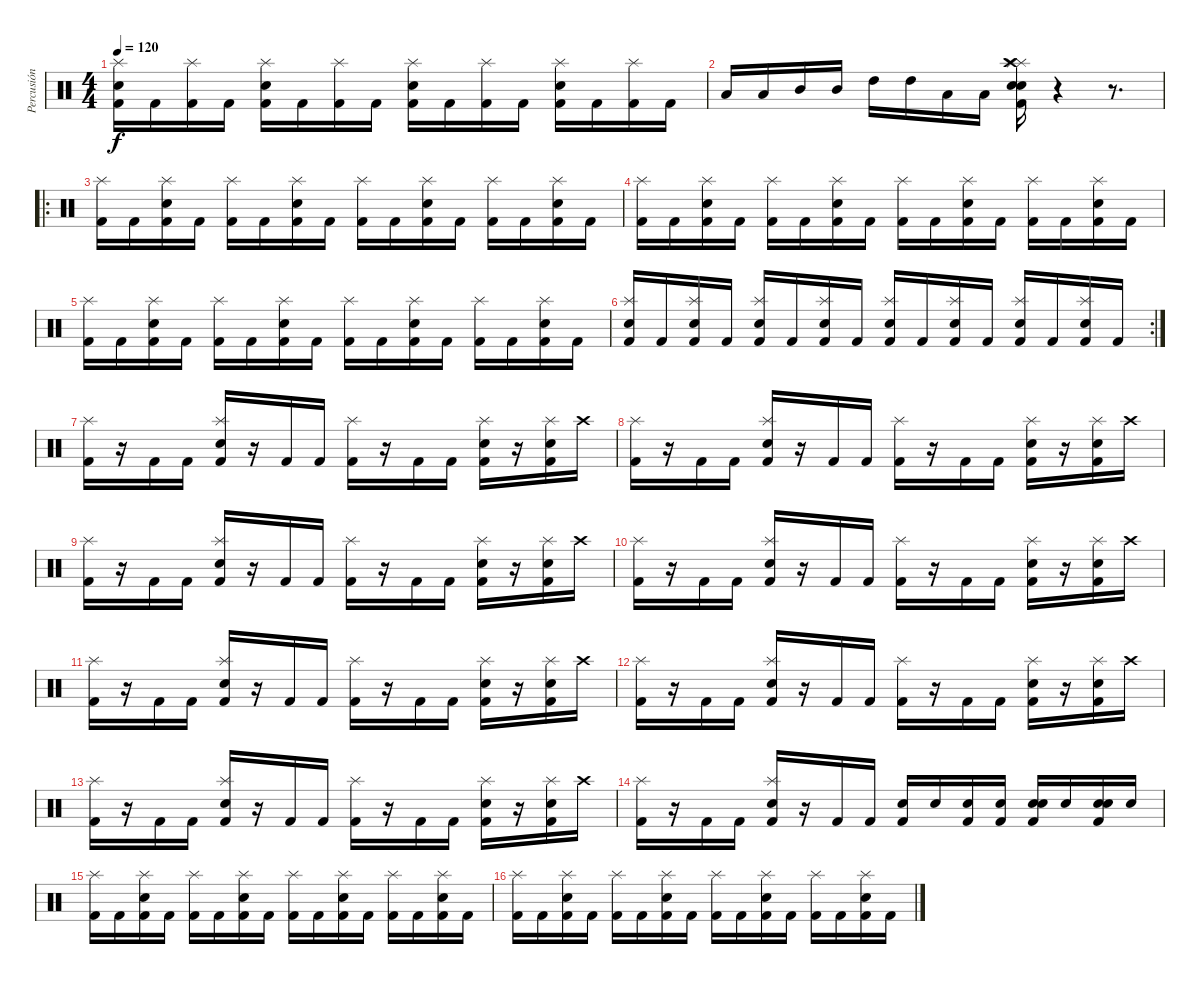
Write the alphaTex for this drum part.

\track ("Percusión" "Percusión") {instrument percussion}
\staff {score}
\articulation defaults
\ts (4 4)
\tempo 120
\clef neutral
\ks c
("Kick (hit) 2" "Splash (hit)" "Electric Snare (hit)").16{dy f} "Kick (hit) 2".16 ("Kick (hit) 2" "Splash (hit)").16 "Kick (hit) 2".16 ("Kick (hit) 2" "Splash (hit)" "Electric Snare (hit)").16 "Kick (hit) 2".16 ("Kick (hit) 2" "Splash (hit)").16 "Kick (hit) 2".16 ("Kick (hit) 2" "Splash (hit)" "Electric Snare (hit)").16 "Kick (hit) 2".16 ("Kick (hit) 2" "Splash (hit)").16 "Kick (hit) 2".16 ("Kick (hit) 2" "Splash (hit)" "Electric Snare (hit)").16 "Kick (hit) 2".16 ("Kick (hit) 2" "Splash (hit)").16 "Kick (hit) 2".16 |
"Low Tom (hit)".16 "Low Tom (hit)".16 "Mid Tom (hit)".16 "Mid Tom (hit)".16 "High Tom (hit)".16 "High Tom (hit)".16 "Low Floor Tom (hit)".16 "Low Floor Tom (hit)".16 ("Kick (hit) 2" "Splash (hit)" "Electric Snare (hit)" "Electric Snare (hit)" "Crash high (hit)" "Splash (hit)").16 r.4 r.8{d} |
\ro
("Kick (hit) 2" "Splash (hit)").16 "Kick (hit) 2".16 ("Kick (hit) 2" "Splash (hit)" "Electric Snare (hit)").16 "Kick (hit) 2".16 ("Kick (hit) 2" "Splash (hit)").16 "Kick (hit) 2".16 ("Kick (hit) 2" "Splash (hit)" "Electric Snare (hit)").16 "Kick (hit) 2".16 ("Kick (hit) 2" "Splash (hit)").16 "Kick (hit) 2".16 ("Kick (hit) 2" "Splash (hit)" "Electric Snare (hit)").16 "Kick (hit) 2".16 ("Kick (hit) 2" "Splash (hit)").16 "Kick (hit) 2".16 ("Kick (hit) 2" "Splash (hit)" "Electric Snare (hit)").16 "Kick (hit) 2".16 |
("Kick (hit) 2" "Splash (hit)").16 "Kick (hit) 2".16 ("Kick (hit) 2" "Splash (hit)" "Electric Snare (hit)").16 "Kick (hit) 2".16 ("Kick (hit) 2" "Splash (hit)").16 "Kick (hit) 2".16 ("Kick (hit) 2" "Splash (hit)" "Electric Snare (hit)").16 "Kick (hit) 2".16 ("Kick (hit) 2" "Splash (hit)").16 "Kick (hit) 2".16 ("Kick (hit) 2" "Splash (hit)" "Electric Snare (hit)").16 "Kick (hit) 2".16 ("Kick (hit) 2" "Splash (hit)").16 "Kick (hit) 2".16 ("Kick (hit) 2" "Splash (hit)" "Electric Snare (hit)").16 "Kick (hit) 2".16 |
("Kick (hit) 2" "Splash (hit)").16 "Kick (hit) 2".16 ("Kick (hit) 2" "Splash (hit)" "Electric Snare (hit)").16 "Kick (hit) 2".16 ("Kick (hit) 2" "Splash (hit)").16 "Kick (hit) 2".16 ("Kick (hit) 2" "Splash (hit)" "Electric Snare (hit)").16 "Kick (hit) 2".16 ("Kick (hit) 2" "Splash (hit)").16 "Kick (hit) 2".16 ("Kick (hit) 2" "Splash (hit)" "Electric Snare (hit)").16 "Kick (hit) 2".16 ("Kick (hit) 2" "Splash (hit)").16 "Kick (hit) 2".16 ("Kick (hit) 2" "Splash (hit)" "Electric Snare (hit)").16 "Kick (hit) 2".16 |
\rc 2
("Kick (hit) 2" "Splash (hit)" "Electric Snare (hit)").16 "Kick (hit) 2".16 ("Kick (hit) 2" "Splash (hit)" "Electric Snare (hit)").16 "Kick (hit) 2".16 ("Kick (hit) 2" "Splash (hit)" "Electric Snare (hit)").16 "Kick (hit) 2".16 ("Kick (hit) 2" "Splash (hit)" "Electric Snare (hit)").16 "Kick (hit) 2".16 ("Kick (hit) 2" "Splash (hit)" "Electric Snare (hit)").16 "Kick (hit) 2".16 ("Kick (hit) 2" "Splash (hit)" "Electric Snare (hit)").16 "Kick (hit) 2".16 ("Kick (hit) 2" "Splash (hit)" "Electric Snare (hit)").16 "Kick (hit) 2".16 ("Kick (hit) 2" "Splash (hit)" "Electric Snare (hit)").16 "Kick (hit) 2".16 |
("Kick (hit) 2" "Splash (hit)").16 r.16 "Kick (hit) 2".16 "Kick (hit) 2".16 ("Kick (hit) 2" "Splash (hit)" "Electric Snare (hit)").16 r.16 "Kick (hit) 2".16 "Kick (hit) 2".16 ("Kick (hit) 2" "Splash (hit)").16 r.16 "Kick (hit) 2".16 "Kick (hit) 2".16 ("Kick (hit) 2" "Splash (hit)" "Electric Snare (hit)").16 r.16 ("Kick (hit) 2" "Splash (hit)" "Electric Snare (hit)").16 "Crash high (hit)".16 |
("Kick (hit) 2" "Splash (hit)").16 r.16 "Kick (hit) 2".16 "Kick (hit) 2".16 ("Kick (hit) 2" "Splash (hit)" "Electric Snare (hit)").16 r.16 "Kick (hit) 2".16 "Kick (hit) 2".16 ("Kick (hit) 2" "Splash (hit)").16 r.16 "Kick (hit) 2".16 "Kick (hit) 2".16 ("Kick (hit) 2" "Splash (hit)" "Electric Snare (hit)").16 r.16 ("Kick (hit) 2" "Splash (hit)" "Electric Snare (hit)").16 "Crash high (hit)".16 |
("Kick (hit) 2" "Splash (hit)").16 r.16 "Kick (hit) 2".16 "Kick (hit) 2".16 ("Kick (hit) 2" "Splash (hit)" "Electric Snare (hit)").16 r.16 "Kick (hit) 2".16 "Kick (hit) 2".16 ("Kick (hit) 2" "Splash (hit)").16 r.16 "Kick (hit) 2".16 "Kick (hit) 2".16 ("Kick (hit) 2" "Splash (hit)" "Electric Snare (hit)").16 r.16 ("Kick (hit) 2" "Splash (hit)" "Electric Snare (hit)").16 "Crash high (hit)".16 |
("Kick (hit) 2" "Splash (hit)").16 r.16 "Kick (hit) 2".16 "Kick (hit) 2".16 ("Kick (hit) 2" "Splash (hit)" "Electric Snare (hit)").16 r.16 "Kick (hit) 2".16 "Kick (hit) 2".16 ("Kick (hit) 2" "Splash (hit)").16 r.16 "Kick (hit) 2".16 "Kick (hit) 2".16 ("Kick (hit) 2" "Splash (hit)" "Electric Snare (hit)").16 r.16 ("Kick (hit) 2" "Splash (hit)" "Electric Snare (hit)").16 "Crash high (hit)".16 |
("Kick (hit) 2" "Splash (hit)").16 r.16 "Kick (hit) 2".16 "Kick (hit) 2".16 ("Kick (hit) 2" "Splash (hit)" "Electric Snare (hit)").16 r.16 "Kick (hit) 2".16 "Kick (hit) 2".16 ("Kick (hit) 2" "Splash (hit)").16 r.16 "Kick (hit) 2".16 "Kick (hit) 2".16 ("Kick (hit) 2" "Splash (hit)" "Electric Snare (hit)").16 r.16 ("Kick (hit) 2" "Splash (hit)" "Electric Snare (hit)").16 "Crash high (hit)".16 |
("Kick (hit) 2" "Splash (hit)").16 r.16 "Kick (hit) 2".16 "Kick (hit) 2".16 ("Kick (hit) 2" "Splash (hit)" "Electric Snare (hit)").16 r.16 "Kick (hit) 2".16 "Kick (hit) 2".16 ("Kick (hit) 2" "Splash (hit)").16 r.16 "Kick (hit) 2".16 "Kick (hit) 2".16 ("Kick (hit) 2" "Splash (hit)" "Electric Snare (hit)").16 r.16 ("Kick (hit) 2" "Splash (hit)" "Electric Snare (hit)").16 "Crash high (hit)".16 |
("Kick (hit) 2" "Splash (hit)").16 r.16 "Kick (hit) 2".16 "Kick (hit) 2".16 ("Kick (hit) 2" "Splash (hit)" "Electric Snare (hit)").16 r.16 "Kick (hit) 2".16 "Kick (hit) 2".16 ("Kick (hit) 2" "Splash (hit)").16 r.16 "Kick (hit) 2".16 "Kick (hit) 2".16 ("Kick (hit) 2" "Splash (hit)" "Electric Snare (hit)").16 r.16 ("Kick (hit) 2" "Splash (hit)" "Electric Snare (hit)").16 "Crash high (hit)".16 |
("Kick (hit) 2" "Splash (hit)").16 r.16 "Kick (hit) 2".16 "Kick (hit) 2".16 ("Kick (hit) 2" "Splash (hit)" "Electric Snare (hit)").16 r.16 "Kick (hit) 2".16 "Kick (hit) 2".16 ("Kick (hit) 2" "Electric Snare (hit)").16 "Electric Snare (hit)".16 ("Kick (hit) 2" "Electric Snare (hit)").16 ("Kick (hit) 2" "Electric Snare (hit)").16 ("Kick (hit) 2" "Electric Snare (hit)" "Electric Snare (hit)").16 "Electric Snare (hit)".16 ("Kick (hit) 2" "Electric Snare (hit)" "Electric Snare (hit)").16 "Electric Snare (hit)".16 |
("Kick (hit) 2" "Splash (hit)").16 "Kick (hit) 2".16 ("Kick (hit) 2" "Splash (hit)" "Electric Snare (hit)").16 "Kick (hit) 2".16 ("Kick (hit) 2" "Splash (hit)").16 "Kick (hit) 2".16 ("Kick (hit) 2" "Splash (hit)" "Electric Snare (hit)").16 "Kick (hit) 2".16 ("Kick (hit) 2" "Splash (hit)").16 "Kick (hit) 2".16 ("Kick (hit) 2" "Splash (hit)" "Electric Snare (hit)").16 "Kick (hit) 2".16 ("Kick (hit) 2" "Splash (hit)").16 "Kick (hit) 2".16 ("Kick (hit) 2" "Splash (hit)" "Electric Snare (hit)").16 "Kick (hit) 2".16 |
("Kick (hit) 2" "Splash (hit)").16 "Kick (hit) 2".16 ("Kick (hit) 2" "Splash (hit)" "Electric Snare (hit)").16 "Kick (hit) 2".16 ("Kick (hit) 2" "Splash (hit)").16 "Kick (hit) 2".16 ("Kick (hit) 2" "Splash (hit)" "Electric Snare (hit)").16 "Kick (hit) 2".16 ("Kick (hit) 2" "Splash (hit)").16 "Kick (hit) 2".16 ("Kick (hit) 2" "Splash (hit)" "Electric Snare (hit)").16 "Kick (hit) 2".16 ("Kick (hit) 2" "Splash (hit)").16 "Kick (hit) 2".16 ("Kick (hit) 2" "Splash (hit)" "Electric Snare (hit)").16 "Kick (hit) 2".16
